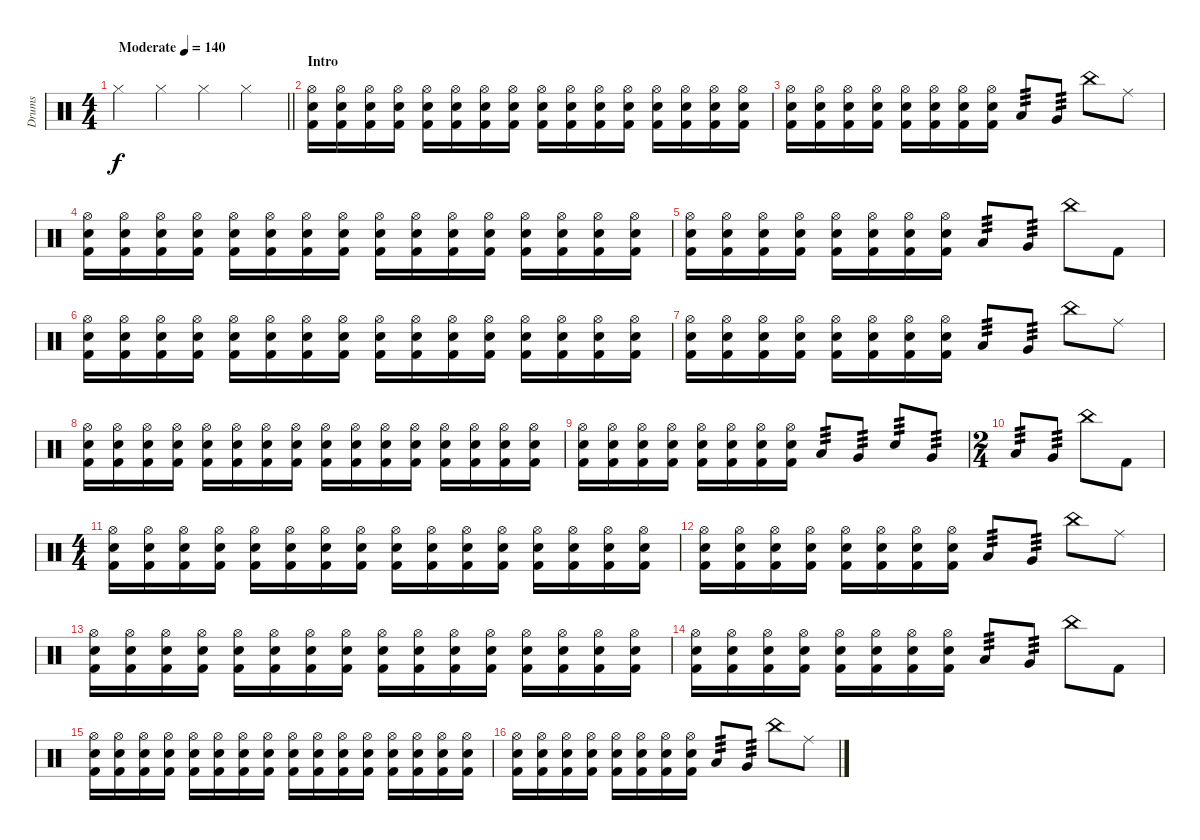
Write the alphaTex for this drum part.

\track ("Drums" "Drums") {instrument percussion}
\staff {score}
\articulation defaults
\ts (4 4)
\tempo (140 "Moderate")
\clef neutral
\barLineRight lightlight
\ks c "Hi-Hat (closed)".4{dy f} "Hi-Hat (closed)".4 "Hi-Hat (closed)".4 "Hi-Hat (closed)".4
|
\section ("" "Intro")
("Hi-Hat (open)" "Snare (hit) 2" "Kick (hit) 2").16 ("Hi-Hat (open)" "Snare (hit) 2" "Kick (hit) 2").16 ("Hi-Hat (open)" "Snare (hit) 2" "Kick (hit) 2").16 ("Hi-Hat (open)" "Snare (hit) 2" "Kick (hit) 2").16 ("Hi-Hat (open)" "Snare (hit) 2" "Kick (hit) 2").16 ("Hi-Hat (open)" "Snare (hit) 2" "Kick (hit) 2").16 ("Hi-Hat (open)" "Snare (hit) 2" "Kick (hit) 2").16 ("Hi-Hat (open)" "Snare (hit) 2" "Kick (hit) 2").16 ("Hi-Hat (open)" "Snare (hit) 2" "Kick (hit) 2").16 ("Hi-Hat (open)" "Snare (hit) 2" "Kick (hit) 2").16 ("Hi-Hat (open)" "Snare (hit) 2" "Kick (hit) 2").16 ("Hi-Hat (open)" "Snare (hit) 2" "Kick (hit) 2").16 ("Hi-Hat (open)" "Snare (hit) 2" "Kick (hit) 2").16 ("Hi-Hat (open)" "Snare (hit) 2" "Kick (hit) 2").16 ("Hi-Hat (open)" "Snare (hit) 2" "Kick (hit) 2").16 ("Hi-Hat (open)" "Snare (hit) 2" "Kick (hit) 2").16 |
("Hi-Hat (open)" "Snare (hit) 2" "Kick (hit) 2").16 ("Hi-Hat (open)" "Snare (hit) 2" "Kick (hit) 2").16 ("Hi-Hat (open)" "Snare (hit) 2" "Kick (hit) 2").16 ("Hi-Hat (open)" "Snare (hit) 2" "Kick (hit) 2").16 ("Hi-Hat (open)" "Snare (hit) 2" "Kick (hit) 2").16 ("Hi-Hat (open)" "Snare (hit) 2" "Kick (hit) 2").16 ("Hi-Hat (open)" "Snare (hit) 2" "Kick (hit) 2").16 ("Hi-Hat (open)" "Snare (hit) 2" "Kick (hit) 2").16 "Low Tom (hit)".8{tp 3} "Very Low Tom (hit)".8{tp 3} "China (hit)".8 "Ride (middle)".8 |
("Hi-Hat (open)" "Snare (hit) 2" "Kick (hit) 2").16 ("Hi-Hat (open)" "Snare (hit) 2" "Kick (hit) 2").16 ("Hi-Hat (open)" "Snare (hit) 2" "Kick (hit) 2").16 ("Hi-Hat (open)" "Snare (hit) 2" "Kick (hit) 2").16 ("Hi-Hat (open)" "Snare (hit) 2" "Kick (hit) 2").16 ("Hi-Hat (open)" "Snare (hit) 2" "Kick (hit) 2").16 ("Hi-Hat (open)" "Snare (hit) 2" "Kick (hit) 2").16 ("Hi-Hat (open)" "Snare (hit) 2" "Kick (hit) 2").16 ("Hi-Hat (open)" "Snare (hit) 2" "Kick (hit) 2").16 ("Hi-Hat (open)" "Snare (hit) 2" "Kick (hit) 2").16 ("Hi-Hat (open)" "Snare (hit) 2" "Kick (hit) 2").16 ("Hi-Hat (open)" "Snare (hit) 2" "Kick (hit) 2").16 ("Hi-Hat (open)" "Snare (hit) 2" "Kick (hit) 2").16 ("Hi-Hat (open)" "Snare (hit) 2" "Kick (hit) 2").16 ("Hi-Hat (open)" "Snare (hit) 2" "Kick (hit) 2").16 ("Hi-Hat (open)" "Snare (hit) 2" "Kick (hit) 2").16 |
("Hi-Hat (open)" "Snare (hit) 2" "Kick (hit) 2").16 ("Hi-Hat (open)" "Snare (hit) 2" "Kick (hit) 2").16 ("Hi-Hat (open)" "Snare (hit) 2" "Kick (hit) 2").16 ("Hi-Hat (open)" "Snare (hit) 2" "Kick (hit) 2").16 ("Hi-Hat (open)" "Snare (hit) 2" "Kick (hit) 2").16 ("Hi-Hat (open)" "Snare (hit) 2" "Kick (hit) 2").16 ("Hi-Hat (open)" "Snare (hit) 2" "Kick (hit) 2").16 ("Hi-Hat (open)" "Snare (hit) 2" "Kick (hit) 2").16 "Low Tom (hit)".8{tp 3} "Very Low Tom (hit)".8{tp 3} "China (hit)".8 "Kick (hit) 2".8 |
("Hi-Hat (open)" "Snare (hit) 2" "Kick (hit) 2").16 ("Hi-Hat (open)" "Snare (hit) 2" "Kick (hit) 2").16 ("Hi-Hat (open)" "Snare (hit) 2" "Kick (hit) 2").16 ("Hi-Hat (open)" "Snare (hit) 2" "Kick (hit) 2").16 ("Hi-Hat (open)" "Snare (hit) 2" "Kick (hit) 2").16 ("Hi-Hat (open)" "Snare (hit) 2" "Kick (hit) 2").16 ("Hi-Hat (open)" "Snare (hit) 2" "Kick (hit) 2").16 ("Hi-Hat (open)" "Snare (hit) 2" "Kick (hit) 2").16 ("Hi-Hat (open)" "Snare (hit) 2" "Kick (hit) 2").16 ("Hi-Hat (open)" "Snare (hit) 2" "Kick (hit) 2").16 ("Hi-Hat (open)" "Snare (hit) 2" "Kick (hit) 2").16 ("Hi-Hat (open)" "Snare (hit) 2" "Kick (hit) 2").16 ("Hi-Hat (open)" "Snare (hit) 2" "Kick (hit) 2").16 ("Hi-Hat (open)" "Snare (hit) 2" "Kick (hit) 2").16 ("Hi-Hat (open)" "Snare (hit) 2" "Kick (hit) 2").16 ("Hi-Hat (open)" "Snare (hit) 2" "Kick (hit) 2").16 |
("Hi-Hat (open)" "Snare (hit) 2" "Kick (hit) 2").16 ("Hi-Hat (open)" "Snare (hit) 2" "Kick (hit) 2").16 ("Hi-Hat (open)" "Snare (hit) 2" "Kick (hit) 2").16 ("Hi-Hat (open)" "Snare (hit) 2" "Kick (hit) 2").16 ("Hi-Hat (open)" "Snare (hit) 2" "Kick (hit) 2").16 ("Hi-Hat (open)" "Snare (hit) 2" "Kick (hit) 2").16 ("Hi-Hat (open)" "Snare (hit) 2" "Kick (hit) 2").16 ("Hi-Hat (open)" "Snare (hit) 2" "Kick (hit) 2").16 "Low Tom (hit)".8{tp 3} "Very Low Tom (hit)".8{tp 3} "China (hit)".8 "Ride (middle)".8 |
("Hi-Hat (open)" "Snare (hit) 2" "Kick (hit) 2").16 ("Hi-Hat (open)" "Snare (hit) 2" "Kick (hit) 2").16 ("Hi-Hat (open)" "Snare (hit) 2" "Kick (hit) 2").16 ("Hi-Hat (open)" "Snare (hit) 2" "Kick (hit) 2").16 ("Hi-Hat (open)" "Snare (hit) 2" "Kick (hit) 2").16 ("Hi-Hat (open)" "Snare (hit) 2" "Kick (hit) 2").16 ("Hi-Hat (open)" "Snare (hit) 2" "Kick (hit) 2").16 ("Hi-Hat (open)" "Snare (hit) 2" "Kick (hit) 2").16 ("Hi-Hat (open)" "Snare (hit) 2" "Kick (hit) 2").16 ("Hi-Hat (open)" "Snare (hit) 2" "Kick (hit) 2").16 ("Hi-Hat (open)" "Snare (hit) 2" "Kick (hit) 2").16 ("Hi-Hat (open)" "Snare (hit) 2" "Kick (hit) 2").16 ("Hi-Hat (open)" "Snare (hit) 2" "Kick (hit) 2").16 ("Hi-Hat (open)" "Snare (hit) 2" "Kick (hit) 2").16 ("Hi-Hat (open)" "Snare (hit) 2" "Kick (hit) 2").16 ("Hi-Hat (open)" "Snare (hit) 2" "Kick (hit) 2").16 |
("Hi-Hat (open)" "Snare (hit) 2" "Kick (hit) 2").16 ("Hi-Hat (open)" "Snare (hit) 2" "Kick (hit) 2").16 ("Hi-Hat (open)" "Snare (hit) 2" "Kick (hit) 2").16 ("Hi-Hat (open)" "Snare (hit) 2" "Kick (hit) 2").16 ("Hi-Hat (open)" "Snare (hit) 2" "Kick (hit) 2").16 ("Hi-Hat (open)" "Snare (hit) 2" "Kick (hit) 2").16 ("Hi-Hat (open)" "Snare (hit) 2" "Kick (hit) 2").16 ("Hi-Hat (open)" "Snare (hit) 2" "Kick (hit) 2").16 "Low Tom (hit)".8{tp 3} "Very Low Tom (hit)".8{tp 3} "Snare (hit) 2".8{tp 3} "Very Low Tom (hit)".8{tp 3} |
\ts (2 4)
"Low Tom (hit)".8{tp 3} "Very Low Tom (hit)".8{tp 3} "China (hit)".8 "Kick (hit) 2".8 |
\ts (4 4)
("Hi-Hat (open)" "Snare (hit) 2" "Kick (hit) 2").16 ("Hi-Hat (open)" "Snare (hit) 2" "Kick (hit) 2").16 ("Hi-Hat (open)" "Snare (hit) 2" "Kick (hit) 2").16 ("Hi-Hat (open)" "Snare (hit) 2" "Kick (hit) 2").16 ("Hi-Hat (open)" "Snare (hit) 2" "Kick (hit) 2").16 ("Hi-Hat (open)" "Snare (hit) 2" "Kick (hit) 2").16 ("Hi-Hat (open)" "Snare (hit) 2" "Kick (hit) 2").16 ("Hi-Hat (open)" "Snare (hit) 2" "Kick (hit) 2").16 ("Hi-Hat (open)" "Snare (hit) 2" "Kick (hit) 2").16 ("Hi-Hat (open)" "Snare (hit) 2" "Kick (hit) 2").16 ("Hi-Hat (open)" "Snare (hit) 2" "Kick (hit) 2").16 ("Hi-Hat (open)" "Snare (hit) 2" "Kick (hit) 2").16 ("Hi-Hat (open)" "Snare (hit) 2" "Kick (hit) 2").16 ("Hi-Hat (open)" "Snare (hit) 2" "Kick (hit) 2").16 ("Hi-Hat (open)" "Snare (hit) 2" "Kick (hit) 2").16 ("Hi-Hat (open)" "Snare (hit) 2" "Kick (hit) 2").16 |
("Hi-Hat (open)" "Snare (hit) 2" "Kick (hit) 2").16 ("Hi-Hat (open)" "Snare (hit) 2" "Kick (hit) 2").16 ("Hi-Hat (open)" "Snare (hit) 2" "Kick (hit) 2").16 ("Hi-Hat (open)" "Snare (hit) 2" "Kick (hit) 2").16 ("Hi-Hat (open)" "Snare (hit) 2" "Kick (hit) 2").16 ("Hi-Hat (open)" "Snare (hit) 2" "Kick (hit) 2").16 ("Hi-Hat (open)" "Snare (hit) 2" "Kick (hit) 2").16 ("Hi-Hat (open)" "Snare (hit) 2" "Kick (hit) 2").16 "Low Tom (hit)".8{tp 3} "Very Low Tom (hit)".8{tp 3} "China (hit)".8 "Ride (middle)".8 |
("Hi-Hat (open)" "Snare (hit) 2" "Kick (hit) 2").16 ("Hi-Hat (open)" "Snare (hit) 2" "Kick (hit) 2").16 ("Hi-Hat (open)" "Snare (hit) 2" "Kick (hit) 2").16 ("Hi-Hat (open)" "Snare (hit) 2" "Kick (hit) 2").16 ("Hi-Hat (open)" "Snare (hit) 2" "Kick (hit) 2").16 ("Hi-Hat (open)" "Snare (hit) 2" "Kick (hit) 2").16 ("Hi-Hat (open)" "Snare (hit) 2" "Kick (hit) 2").16 ("Hi-Hat (open)" "Snare (hit) 2" "Kick (hit) 2").16 ("Hi-Hat (open)" "Snare (hit) 2" "Kick (hit) 2").16 ("Hi-Hat (open)" "Snare (hit) 2" "Kick (hit) 2").16 ("Hi-Hat (open)" "Snare (hit) 2" "Kick (hit) 2").16 ("Hi-Hat (open)" "Snare (hit) 2" "Kick (hit) 2").16 ("Hi-Hat (open)" "Snare (hit) 2" "Kick (hit) 2").16 ("Hi-Hat (open)" "Snare (hit) 2" "Kick (hit) 2").16 ("Hi-Hat (open)" "Snare (hit) 2" "Kick (hit) 2").16 ("Hi-Hat (open)" "Snare (hit) 2" "Kick (hit) 2").16 |
("Hi-Hat (open)" "Snare (hit) 2" "Kick (hit) 2").16 ("Hi-Hat (open)" "Snare (hit) 2" "Kick (hit) 2").16 ("Hi-Hat (open)" "Snare (hit) 2" "Kick (hit) 2").16 ("Hi-Hat (open)" "Snare (hit) 2" "Kick (hit) 2").16 ("Hi-Hat (open)" "Snare (hit) 2" "Kick (hit) 2").16 ("Hi-Hat (open)" "Snare (hit) 2" "Kick (hit) 2").16 ("Hi-Hat (open)" "Snare (hit) 2" "Kick (hit) 2").16 ("Hi-Hat (open)" "Snare (hit) 2" "Kick (hit) 2").16 "Low Tom (hit)".8{tp 3} "Very Low Tom (hit)".8{tp 3} "China (hit)".8 "Kick (hit) 2".8 |
("Hi-Hat (open)" "Snare (hit) 2" "Kick (hit) 2").16 ("Hi-Hat (open)" "Snare (hit) 2" "Kick (hit) 2").16 ("Hi-Hat (open)" "Snare (hit) 2" "Kick (hit) 2").16 ("Hi-Hat (open)" "Snare (hit) 2" "Kick (hit) 2").16 ("Hi-Hat (open)" "Snare (hit) 2" "Kick (hit) 2").16 ("Hi-Hat (open)" "Snare (hit) 2" "Kick (hit) 2").16 ("Hi-Hat (open)" "Snare (hit) 2" "Kick (hit) 2").16 ("Hi-Hat (open)" "Snare (hit) 2" "Kick (hit) 2").16 ("Hi-Hat (open)" "Snare (hit) 2" "Kick (hit) 2").16 ("Hi-Hat (open)" "Snare (hit) 2" "Kick (hit) 2").16 ("Hi-Hat (open)" "Snare (hit) 2" "Kick (hit) 2").16 ("Hi-Hat (open)" "Snare (hit) 2" "Kick (hit) 2").16 ("Hi-Hat (open)" "Snare (hit) 2" "Kick (hit) 2").16 ("Hi-Hat (open)" "Snare (hit) 2" "Kick (hit) 2").16 ("Hi-Hat (open)" "Snare (hit) 2" "Kick (hit) 2").16 ("Hi-Hat (open)" "Snare (hit) 2" "Kick (hit) 2").16 |
("Hi-Hat (open)" "Snare (hit) 2" "Kick (hit) 2").16 ("Hi-Hat (open)" "Snare (hit) 2" "Kick (hit) 2").16 ("Hi-Hat (open)" "Snare (hit) 2" "Kick (hit) 2").16 ("Hi-Hat (open)" "Snare (hit) 2" "Kick (hit) 2").16 ("Hi-Hat (open)" "Snare (hit) 2" "Kick (hit) 2").16 ("Hi-Hat (open)" "Snare (hit) 2" "Kick (hit) 2").16 ("Hi-Hat (open)" "Snare (hit) 2" "Kick (hit) 2").16 ("Hi-Hat (open)" "Snare (hit) 2" "Kick (hit) 2").16 "Low Tom (hit)".8{tp 3} "Very Low Tom (hit)".8{tp 3} "China (hit)".8 "Ride (middle)".8
